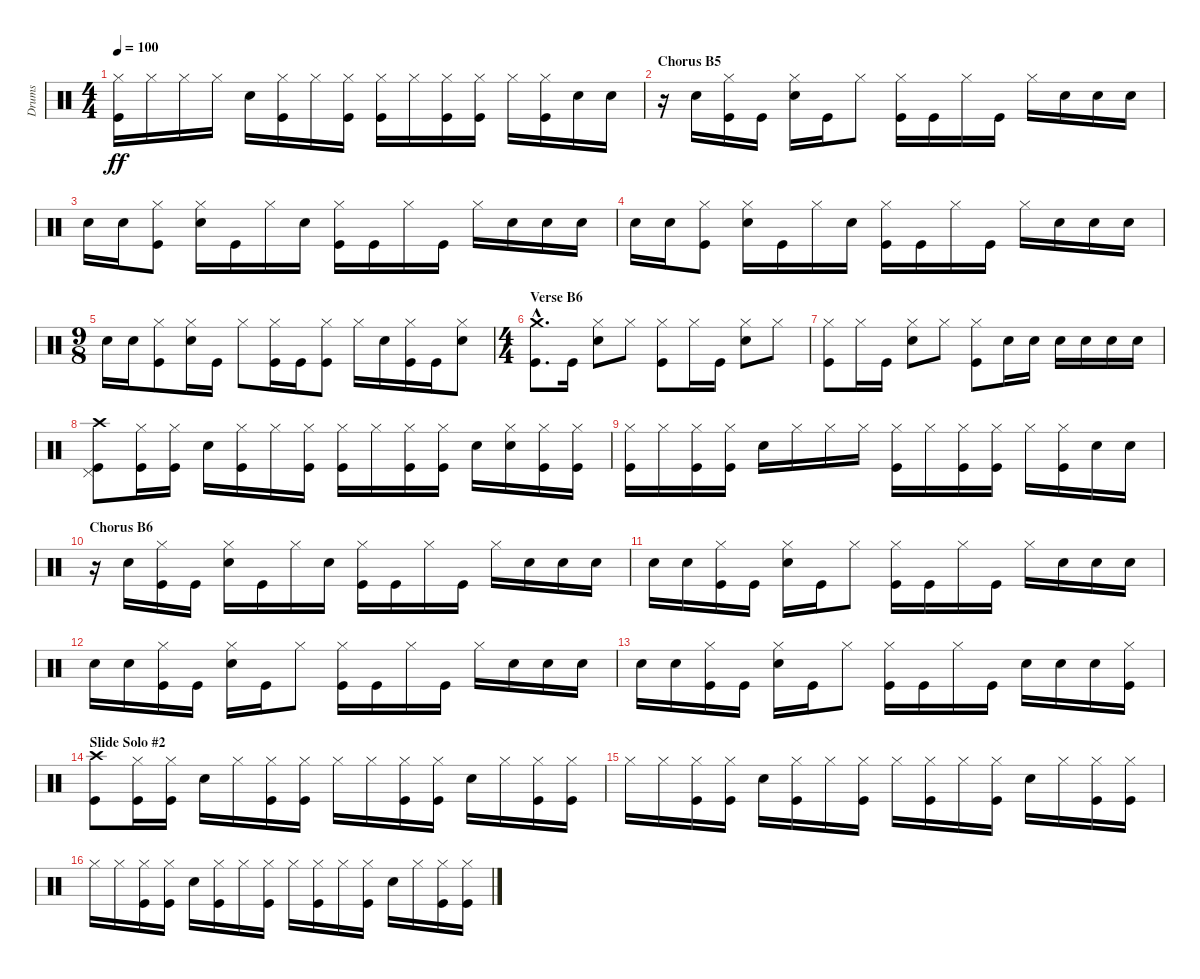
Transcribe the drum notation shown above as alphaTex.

\track ("Drums" "Drums") {instrument percussion}
\staff {score}
\articulation defaults
\ts (4 4)
\tempo 100
\clef neutral
\ks c
("Hi-Hat (closed)" "Kick (hit)").16{dy ff} "Hi-Hat (closed)".16 "Hi-Hat (closed)".16 "Hi-Hat (closed)".16 "Electric Snare (hit)".16 ("Hi-Hat (closed)" "Kick (hit)").16 "Hi-Hat (closed)".16 ("Hi-Hat (closed)" "Kick (hit)").16 ("Hi-Hat (closed)" "Kick (hit)").16 "Hi-Hat (closed)".16 ("Hi-Hat (closed)" "Kick (hit)").16 ("Hi-Hat (closed)" "Kick (hit)").16 "Hi-Hat (closed)".16 ("Hi-Hat (closed)" "Kick (hit)").16 "Electric Snare (hit)".16 "Electric Snare (hit)".16 |
\section ("" "Chorus B5")
r.16 "Electric Snare (hit)".16 ("Hi-Hat (closed)" "Kick (hit)").16 "Kick (hit)".16 ("Hi-Hat (closed)" "Electric Snare (hit)").16 "Kick (hit)".16 "Hi-Hat (closed)".8 ("Hi-Hat (closed)" "Kick (hit)").16 "Kick (hit)".16 "Hi-Hat (closed)".16 "Kick (hit)".16 "Hi-Hat (closed)".16 "Electric Snare (hit)".16 "Electric Snare (hit)".16 "Electric Snare (hit)".16 |
"Electric Snare (hit)".16 "Electric Snare (hit)".16 ("Hi-Hat (closed)" "Kick (hit)").8 ("Hi-Hat (closed)" "Electric Snare (hit)").16 "Kick (hit)".16 "Hi-Hat (closed)".16 "Electric Snare (hit)".16 ("Hi-Hat (closed)" "Kick (hit)").16 "Kick (hit)".16 "Hi-Hat (closed)".16 "Kick (hit)".16 "Hi-Hat (closed)".16 "Electric Snare (hit)".16 "Electric Snare (hit)".16 "Electric Snare (hit)".16 |
"Electric Snare (hit)".16 "Electric Snare (hit)".16 ("Hi-Hat (closed)" "Kick (hit)").8 ("Hi-Hat (closed)" "Electric Snare (hit)").16 "Kick (hit)".16 "Hi-Hat (closed)".16 "Electric Snare (hit)".16 ("Hi-Hat (closed)" "Kick (hit)").16 "Kick (hit)".16 "Hi-Hat (closed)".16 "Kick (hit)".16 "Hi-Hat (closed)".16 "Electric Snare (hit)".16 "Electric Snare (hit)".16 "Electric Snare (hit)".16 |
\ts (9 8)
"Electric Snare (hit)".16 "Electric Snare (hit)".16 ("Hi-Hat (closed)" "Kick (hit)").8 ("Hi-Hat (closed)" "Electric Snare (hit)").16 "Kick (hit)".16 "Hi-Hat (closed)".8 ("Hi-Hat (closed)" "Kick (hit)").16 "Kick (hit)".16 ("Hi-Hat (closed)" "Kick (hit)").8 "Hi-Hat (closed)".16 "Electric Snare (hit)".16 ("Hi-Hat (closed)" "Kick (hit)").16 "Kick (hit)".16 ("Hi-Hat (closed)" "Electric Snare (hit)").8 |
\ts (4 4)
\section ("" "Verse B6")
("Crash medium (hit)"{hac} "Kick (hit)"{hac}).8{d} "Kick (hit)".16 ("Hi-Hat (closed)" "Electric Snare (hit)").8 "Hi-Hat (closed)".8 ("Hi-Hat (closed)" "Kick (hit)").8 "Hi-Hat (closed)".16 "Kick (hit)".16 ("Hi-Hat (closed)" "Electric Snare (hit)").8 "Hi-Hat (closed)".8 |
("Hi-Hat (closed)" "Kick (hit)").8 "Hi-Hat (closed)".16 "Kick (hit)".16 ("Hi-Hat (closed)" "Electric Snare (hit)").8 "Hi-Hat (closed)".8 ("Hi-Hat (closed)" "Kick (hit)").8 "Electric Snare (hit)".16 "Electric Snare (hit)".16 "Electric Snare (hit)".16 "Electric Snare (hit)".16 "Electric Snare (hit)".16 "Electric Snare (hit)".16 |
("Pedal Hi-Hat (hit)" "Crash high (hit)" "Kick (hit)").8 ("Hi-Hat (closed)" "Kick (hit)").16 ("Hi-Hat (closed)" "Kick (hit)").16 "Electric Snare (hit)".16 ("Hi-Hat (closed)" "Kick (hit)").16 "Hi-Hat (closed)".16 ("Hi-Hat (closed)" "Kick (hit)").16 ("Hi-Hat (closed)" "Kick (hit)").16 "Hi-Hat (closed)".16 ("Hi-Hat (closed)" "Kick (hit)").16 ("Hi-Hat (closed)" "Kick (hit)").16 "Electric Snare (hit)".16 ("Hi-Hat (closed)" "Electric Snare (hit)").16 ("Hi-Hat (closed)" "Kick (hit)").16 ("Hi-Hat (closed)" "Kick (hit)").16 |
("Hi-Hat (closed)" "Kick (hit)").16 "Hi-Hat (closed)".16 ("Hi-Hat (closed)" "Kick (hit)").16 ("Hi-Hat (closed)" "Kick (hit)").16 "Electric Snare (hit)".16 "Hi-Hat (closed)".16 "Hi-Hat (closed)".16 "Hi-Hat (closed)".16 ("Hi-Hat (closed)" "Kick (hit)").16 "Hi-Hat (closed)".16 ("Hi-Hat (closed)" "Kick (hit)").16 ("Hi-Hat (closed)" "Kick (hit)").16 "Hi-Hat (closed)".16 ("Hi-Hat (closed)" "Kick (hit)").16 "Electric Snare (hit)".16 "Electric Snare (hit)".16 |
\section ("" "Chorus B6")
r.16 "Electric Snare (hit)".16 ("Hi-Hat (closed)" "Kick (hit)").16 "Kick (hit)".16 ("Hi-Hat (closed)" "Electric Snare (hit)").16 "Kick (hit)".16 "Hi-Hat (closed)".16 "Electric Snare (hit)".16 ("Hi-Hat (closed)" "Kick (hit)").16 "Kick (hit)".16 "Hi-Hat (closed)".16 "Kick (hit)".16 "Hi-Hat (closed)".16 "Electric Snare (hit)".16 "Electric Snare (hit)".16 "Electric Snare (hit)".16 |
"Electric Snare (hit)".16 "Electric Snare (hit)".16 ("Hi-Hat (closed)" "Kick (hit)").16 "Kick (hit)".16 ("Hi-Hat (closed)" "Electric Snare (hit)").16 "Kick (hit)".16 "Hi-Hat (closed)".8 ("Hi-Hat (closed)" "Kick (hit)").16 "Kick (hit)".16 "Hi-Hat (closed)".16 "Kick (hit)".16 "Hi-Hat (closed)".16 "Electric Snare (hit)".16 "Electric Snare (hit)".16 "Electric Snare (hit)".16 |
"Electric Snare (hit)".16 "Electric Snare (hit)".16 ("Hi-Hat (closed)" "Kick (hit)").16 "Kick (hit)".16 ("Hi-Hat (closed)" "Electric Snare (hit)").16 "Kick (hit)".16 "Hi-Hat (closed)".8 ("Hi-Hat (closed)" "Kick (hit)").16 "Kick (hit)".16 "Hi-Hat (closed)".16 "Kick (hit)".16 "Hi-Hat (closed)".16 "Electric Snare (hit)".16 "Electric Snare (hit)".16 "Electric Snare (hit)".16 |
"Electric Snare (hit)".16 "Electric Snare (hit)".16 ("Hi-Hat (closed)" "Kick (hit)").16 "Kick (hit)".16 ("Hi-Hat (closed)" "Electric Snare (hit)").16 "Kick (hit)".16 "Hi-Hat (closed)".8 ("Hi-Hat (closed)" "Kick (hit)").16 "Kick (hit)".16 "Hi-Hat (closed)".16 "Kick (hit)".16 "Electric Snare (hit)".16 "Electric Snare (hit)".16 "Electric Snare (hit)".16 ("Hi-Hat (closed)" "Kick (hit)").16 |
\section ("" "Slide Solo #2")
("Crash high (hit)" "Kick (hit)").8 ("Hi-Hat (closed)" "Kick (hit)").16 ("Hi-Hat (closed)" "Kick (hit)").16 "Electric Snare (hit)".16 "Hi-Hat (closed)".16 ("Hi-Hat (closed)" "Kick (hit)").16 ("Hi-Hat (closed)" "Kick (hit)").16 "Hi-Hat (closed)".16 "Hi-Hat (closed)".16 ("Hi-Hat (closed)" "Kick (hit)").16 ("Hi-Hat (closed)" "Kick (hit)").16 "Electric Snare (hit)".16 "Hi-Hat (closed)".16 ("Hi-Hat (closed)" "Kick (hit)").16 ("Hi-Hat (closed)" "Kick (hit)").16 |
"Hi-Hat (closed)".16 "Hi-Hat (closed)".16 ("Hi-Hat (closed)" "Kick (hit)").16 ("Hi-Hat (closed)" "Kick (hit)").16 "Electric Snare (hit)".16 ("Hi-Hat (closed)" "Kick (hit)").16 "Hi-Hat (closed)".16 ("Hi-Hat (closed)" "Kick (hit)").16 "Hi-Hat (closed)".16 ("Hi-Hat (closed)" "Kick (hit)").16 "Hi-Hat (closed)".16 ("Hi-Hat (closed)" "Kick (hit)").16 "Electric Snare (hit)".16 "Hi-Hat (closed)".16 ("Hi-Hat (closed)" "Kick (hit)").16 ("Hi-Hat (closed)" "Kick (hit)").16 |
"Hi-Hat (closed)".16 "Hi-Hat (closed)".16 ("Hi-Hat (closed)" "Kick (hit)").16 ("Hi-Hat (closed)" "Kick (hit)").16 "Electric Snare (hit)".16 ("Hi-Hat (closed)" "Kick (hit)").16 "Hi-Hat (closed)".16 ("Hi-Hat (closed)" "Kick (hit)").16 "Hi-Hat (closed)".16 ("Hi-Hat (closed)" "Kick (hit)").16 "Hi-Hat (closed)".16 ("Hi-Hat (closed)" "Kick (hit)").16 "Electric Snare (hit)".16 "Hi-Hat (closed)".16 ("Hi-Hat (closed)" "Kick (hit)").16 ("Hi-Hat (closed)" "Kick (hit)").16
